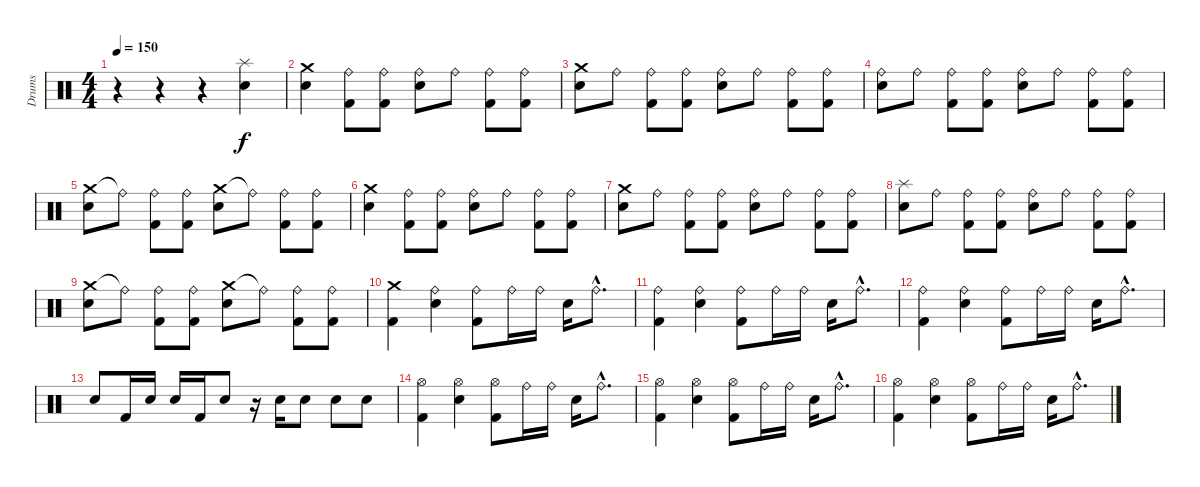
\track ("Drums" "Drums") {instrument percussion}
\staff {score}
\articulation defaults
\ts (4 4)
\tempo 150
\clef neutral
\ks c
r.4{dy f} r.4 r.4 ("Splash (hit)" "Electric Snare (hit)").4 |
("Crash medium (hit)" "Electric Snare (hit)").4 ("Ride (bell)" "Kick (hit) 2").8 ("Ride (bell)" "Kick (hit) 2").8 ("Ride (bell)" "Electric Snare (hit)").8 "Ride (bell)".8 ("Ride (bell)" "Kick (hit) 2").8 ("Ride (bell)" "Kick (hit) 2").8 |
("Crash medium (hit)" "Electric Snare (hit)").8 "Ride (bell)".8 ("Ride (bell)" "Kick (hit) 2").8 ("Ride (bell)" "Kick (hit) 2").8 ("Ride (bell)" "Electric Snare (hit)").8 "Ride (bell)".8 ("Ride (bell)" "Kick (hit) 2").8 ("Ride (bell)" "Kick (hit) 2").8 |
("Ride (bell)" "Electric Snare (hit)").8 "Ride (bell)".8 ("Ride (bell)" "Kick (hit) 2").8 ("Ride (bell)" "Kick (hit) 2").8 ("Ride (bell)" "Electric Snare (hit)").8 "Ride (bell)".8 ("Ride (bell)" "Kick (hit) 2").8 ("Ride (bell)" "Kick (hit) 2").8 |
("Crash medium (hit)" "Electric Snare (hit)").8 "Ride (bell)"{t}.8 ("Ride (bell)" "Kick (hit) 2").8 ("Ride (bell)" "Kick (hit) 2").8 ("Crash medium (hit)" "Electric Snare (hit)").8 "Ride (bell)"{t}.8 ("Ride (bell)" "Kick (hit) 2").8 ("Ride (bell)" "Kick (hit) 2").8 |
("Crash medium (hit)" "Electric Snare (hit)").4 ("Ride (bell)" "Kick (hit) 2").8 ("Ride (bell)" "Kick (hit) 2").8 ("Ride (bell)" "Electric Snare (hit)").8 "Ride (bell)".8 ("Ride (bell)" "Kick (hit) 2").8 ("Ride (bell)" "Kick (hit) 2").8 |
("Crash medium (hit)" "Electric Snare (hit)").8 "Ride (bell)".8 ("Ride (bell)" "Kick (hit) 2").8 ("Ride (bell)" "Kick (hit) 2").8 ("Ride (bell)" "Electric Snare (hit)").8 "Ride (bell)".8 ("Ride (bell)" "Kick (hit) 2").8 ("Ride (bell)" "Kick (hit) 2").8 |
("Splash (hit)" "Electric Snare (hit)").8 "Ride (bell)".8 ("Ride (bell)" "Kick (hit) 2").8 ("Ride (bell)" "Kick (hit) 2").8 ("Ride (bell)" "Electric Snare (hit)").8 "Ride (bell)".8 ("Ride (bell)" "Kick (hit) 2").8 ("Ride (bell)" "Kick (hit) 2").8 |
("Crash medium (hit)" "Electric Snare (hit)").8 "Ride (bell)"{t}.8 ("Ride (bell)" "Kick (hit) 2").8 ("Ride (bell)" "Kick (hit) 2").8 ("Crash medium (hit)" "Electric Snare (hit)").8 "Ride (bell)"{t}.8 ("Ride (bell)" "Kick (hit) 2").8 ("Ride (bell)" "Kick (hit) 2").8 |
("Crash medium (hit)" "Kick (hit) 2").4 ("Ride (bell)" "Electric Snare (hit)").4 ("Ride (bell)" "Kick (hit) 2").8 "Ride (bell)".16 "Ride (bell)".16 "Electric Snare (hit)".16 "Ride (bell)"{hac}.8{d} |
("Ride (bell)" "Kick (hit) 2").4 ("Ride (bell)" "Electric Snare (hit)").4 ("Ride (bell)" "Kick (hit) 2").8 "Ride (bell)".16 "Ride (bell)".16 "Electric Snare (hit)".16 "Ride (bell)"{hac}.8{d} |
("Ride (bell)" "Kick (hit) 2").4 ("Ride (bell)" "Electric Snare (hit)").4 ("Ride (bell)" "Kick (hit) 2").8 "Ride (bell)".16 "Ride (bell)".16 "Electric Snare (hit)".16 "Ride (bell)"{hac}.8{d} |
"Electric Snare (hit)".8 "Kick (hit) 2".16 "Electric Snare (hit)".16 "Electric Snare (hit)".16 "Kick (hit) 2".16 "Electric Snare (hit)".8 r.16 "Electric Snare (hit)".16 "Electric Snare (hit)".8 "Electric Snare (hit)".8 "Electric Snare (hit)".8 |
("Hi-Hat (open)" "Kick (hit) 2").4 ("Hi-Hat (open)" "Electric Snare (hit)").4 ("Hi-Hat (open)" "Kick (hit) 2").8 "Ride (bell)".16 "Ride (bell)".16 "Electric Snare (hit)".16 "Ride (bell)"{hac}.8{d} |
("Hi-Hat (open)" "Kick (hit) 2").4 ("Hi-Hat (open)" "Electric Snare (hit)").4 ("Hi-Hat (open)" "Kick (hit) 2").8 "Ride (bell)".16 "Ride (bell)".16 "Electric Snare (hit)".16 "Ride (bell)"{hac}.8{d} |
("Hi-Hat (open)" "Kick (hit) 2").4 ("Hi-Hat (open)" "Electric Snare (hit)").4 ("Hi-Hat (open)" "Kick (hit) 2").8 "Ride (bell)".16 "Ride (bell)".16 "Electric Snare (hit)".16 "Ride (bell)"{hac}.8{d}
